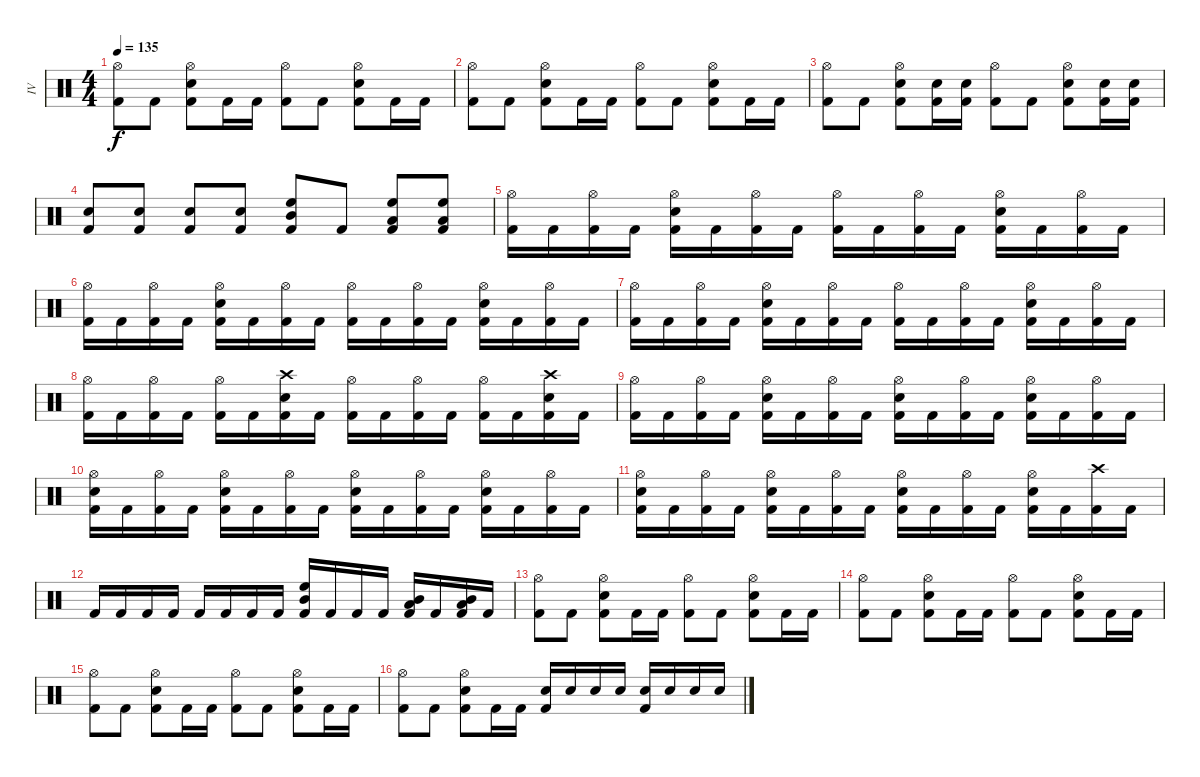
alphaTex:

\track ("IV" "IV") {instrument percussion}
\staff {score}
\articulation defaults
\ts (4 4)
\tempo 135
\clef neutral
\ks c
("Hi-Hat (open)" "Kick (hit) 2").8{dy f} "Kick (hit) 2".8 ("Hi-Hat (open)" "Snare (hit) 2" "Kick (hit) 2").8 "Kick (hit) 2".16 "Kick (hit) 2".16 ("Hi-Hat (open)" "Kick (hit) 2").8 "Kick (hit) 2".8 ("Hi-Hat (open)" "Snare (hit) 2" "Kick (hit) 2").8 "Kick (hit) 2".16 "Kick (hit) 2".16 |
("Hi-Hat (open)" "Kick (hit) 2").8 "Kick (hit) 2".8 ("Hi-Hat (open)" "Snare (hit) 2" "Kick (hit) 2").8 "Kick (hit) 2".16 "Kick (hit) 2".16 ("Hi-Hat (open)" "Kick (hit) 2").8 "Kick (hit) 2".8 ("Hi-Hat (open)" "Snare (hit) 2" "Kick (hit) 2").8 "Kick (hit) 2".16 "Kick (hit) 2".16 |
("Hi-Hat (open)" "Kick (hit) 2").8 "Kick (hit) 2".8 ("Hi-Hat (open)" "Snare (hit) 2" "Kick (hit) 2").8 ("Snare (hit) 2" "Kick (hit) 2").16 ("Snare (hit) 2" "Kick (hit) 2").16 ("Hi-Hat (open)" "Kick (hit) 2").8 "Kick (hit) 2".8 ("Hi-Hat (open)" "Snare (hit) 2" "Kick (hit) 2").8 ("Snare (hit) 2" "Kick (hit) 2").16 ("Snare (hit) 2" "Kick (hit) 2").16 |
("Snare (hit) 2" "Kick (hit) 2").8 ("Snare (hit) 2" "Kick (hit) 2").8 ("Snare (hit) 2" "Kick (hit) 2").8 ("Snare (hit) 2" "Kick (hit) 2").8 ("High Floor Tom (hit)" "Mid Tom (hit)" "Kick (hit) 2").8 "Kick (hit) 2".8 ("High Floor Tom (hit)" "Low Tom (hit)" "Kick (hit) 2").8 ("High Floor Tom (hit)" "Low Tom (hit)" "Kick (hit) 2").8 |
("Hi-Hat (open)" "Kick (hit) 2").16 "Kick (hit) 2".16 ("Hi-Hat (open)" "Kick (hit) 2").16 "Kick (hit) 2".16 ("Hi-Hat (open)" "Snare (hit) 2" "Kick (hit) 2").16 "Kick (hit) 2".16 ("Hi-Hat (open)" "Kick (hit) 2").16 "Kick (hit) 2".16 ("Hi-Hat (open)" "Kick (hit) 2").16 "Kick (hit) 2".16 ("Hi-Hat (open)" "Kick (hit) 2").16 "Kick (hit) 2".16 ("Hi-Hat (open)" "Snare (hit) 2" "Kick (hit) 2").16 "Kick (hit) 2".16 ("Hi-Hat (open)" "Kick (hit) 2").16 "Kick (hit) 2".16 |
("Hi-Hat (open)" "Kick (hit) 2").16 "Kick (hit) 2".16 ("Hi-Hat (open)" "Kick (hit) 2").16 "Kick (hit) 2".16 ("Hi-Hat (open)" "Snare (hit) 2" "Kick (hit) 2").16 "Kick (hit) 2".16 ("Hi-Hat (open)" "Kick (hit) 2").16 "Kick (hit) 2".16 ("Hi-Hat (open)" "Kick (hit) 2").16 "Kick (hit) 2".16 ("Hi-Hat (open)" "Kick (hit) 2").16 "Kick (hit) 2".16 ("Hi-Hat (open)" "Snare (hit) 2" "Kick (hit) 2").16 "Kick (hit) 2".16 ("Hi-Hat (open)" "Kick (hit) 2").16 "Kick (hit) 2".16 |
("Hi-Hat (open)" "Kick (hit) 2").16 "Kick (hit) 2".16 ("Hi-Hat (open)" "Kick (hit) 2").16 "Kick (hit) 2".16 ("Hi-Hat (open)" "Snare (hit) 2" "Kick (hit) 2").16 "Kick (hit) 2".16 ("Hi-Hat (open)" "Kick (hit) 2").16 "Kick (hit) 2".16 ("Hi-Hat (open)" "Kick (hit) 2").16 "Kick (hit) 2".16 ("Hi-Hat (open)" "Kick (hit) 2").16 "Kick (hit) 2".16 ("Hi-Hat (open)" "Snare (hit) 2" "Kick (hit) 2").16 "Kick (hit) 2".16 ("Hi-Hat (open)" "Kick (hit) 2").16 "Kick (hit) 2".16 |
("Hi-Hat (open)" "Kick (hit) 2").16 "Kick (hit) 2".16 ("Hi-Hat (open)" "Kick (hit) 2").16 "Kick (hit) 2".16 ("Hi-Hat (open)" "Kick (hit) 2").16 "Kick (hit) 2".16 ("Crash high (hit)" "Snare (hit) 2" "Kick (hit) 2").16 "Kick (hit) 2".16 ("Hi-Hat (open)" "Kick (hit) 2").16 "Kick (hit) 2".16 ("Hi-Hat (open)" "Kick (hit) 2").16 "Kick (hit) 2".16 ("Hi-Hat (open)" "Kick (hit) 2").16 "Kick (hit) 2".16 ("Crash high (hit)" "Snare (hit) 2" "Kick (hit) 2").16 "Kick (hit) 2".16 |
("Hi-Hat (open)" "Kick (hit) 2").16 "Kick (hit) 2".16 ("Hi-Hat (open)" "Kick (hit) 2").16 "Kick (hit) 2".16 ("Hi-Hat (open)" "Snare (hit) 2" "Kick (hit) 2").16 "Kick (hit) 2".16 ("Hi-Hat (open)" "Kick (hit) 2").16 "Kick (hit) 2".16 ("Hi-Hat (open)" "Snare (hit) 2" "Kick (hit) 2").16 "Kick (hit) 2".16 ("Hi-Hat (open)" "Kick (hit) 2").16 "Kick (hit) 2".16 ("Hi-Hat (open)" "Snare (hit) 2" "Kick (hit) 2").16 "Kick (hit) 2".16 ("Hi-Hat (open)" "Kick (hit) 2").16 "Kick (hit) 2".16 |
("Hi-Hat (open)" "Snare (hit) 2" "Kick (hit) 2").16 "Kick (hit) 2".16 ("Hi-Hat (open)" "Kick (hit) 2").16 "Kick (hit) 2".16 ("Hi-Hat (open)" "Snare (hit) 2" "Kick (hit) 2").16 "Kick (hit) 2".16 ("Hi-Hat (open)" "Kick (hit) 2").16 "Kick (hit) 2".16 ("Hi-Hat (open)" "Snare (hit) 2" "Kick (hit) 2").16 "Kick (hit) 2".16 ("Hi-Hat (open)" "Kick (hit) 2").16 "Kick (hit) 2".16 ("Hi-Hat (open)" "Snare (hit) 2" "Kick (hit) 2").16 "Kick (hit) 2".16 ("Hi-Hat (open)" "Kick (hit) 2").16 "Kick (hit) 2".16 |
("Hi-Hat (open)" "Snare (hit) 2" "Kick (hit) 2").16 "Kick (hit) 2".16 ("Hi-Hat (open)" "Kick (hit) 2").16 "Kick (hit) 2".16 ("Hi-Hat (open)" "Snare (hit) 2" "Kick (hit) 2").16 "Kick (hit) 2".16 ("Hi-Hat (open)" "Kick (hit) 2").16 "Kick (hit) 2".16 ("Hi-Hat (open)" "Snare (hit) 2" "Kick (hit) 2").16 "Kick (hit) 2".16 ("Hi-Hat (open)" "Kick (hit) 2").16 "Kick (hit) 2".16 ("Hi-Hat (open)" "Snare (hit) 2" "Kick (hit) 2").16 "Kick (hit) 2".16 ("Crash high (hit)" "Kick (hit) 2").16 "Kick (hit) 2".16 |
"Kick (hit) 2".16 "Kick (hit) 2".16 "Kick (hit) 2".16 "Kick (hit) 2".16 "Kick (hit) 2".16 "Kick (hit) 2".16 "Kick (hit) 2".16 "Kick (hit) 2".16 ("High Floor Tom (hit)" "Mid Tom (hit)" "Kick (hit) 2").16 "Kick (hit) 2".16 "Kick (hit) 2".16 "Kick (hit) 2".16 ("Mid Tom (hit)" "Low Tom (hit)" "Kick (hit) 2").16 "Kick (hit) 2".16 ("Mid Tom (hit)" "Low Tom (hit)" "Kick (hit) 2").16 "Kick (hit) 2".16 |
("Hi-Hat (open)" "Kick (hit) 2").8 "Kick (hit) 2".8 ("Hi-Hat (open)" "Snare (hit) 2" "Kick (hit) 2").8 "Kick (hit) 2".16 "Kick (hit) 2".16 ("Hi-Hat (open)" "Kick (hit) 2").8 "Kick (hit) 2".8 ("Hi-Hat (open)" "Snare (hit) 2" "Kick (hit) 2").8 "Kick (hit) 2".16 "Kick (hit) 2".16 |
("Hi-Hat (open)" "Kick (hit) 2").8 "Kick (hit) 2".8 ("Hi-Hat (open)" "Snare (hit) 2" "Kick (hit) 2").8 "Kick (hit) 2".16 "Kick (hit) 2".16 ("Hi-Hat (open)" "Kick (hit) 2").8 "Kick (hit) 2".8 ("Hi-Hat (open)" "Snare (hit) 2" "Kick (hit) 2").8 "Kick (hit) 2".16 "Kick (hit) 2".16 |
("Hi-Hat (open)" "Kick (hit) 2").8 "Kick (hit) 2".8 ("Hi-Hat (open)" "Snare (hit) 2" "Kick (hit) 2").8 "Kick (hit) 2".16 "Kick (hit) 2".16 ("Hi-Hat (open)" "Kick (hit) 2").8 "Kick (hit) 2".8 ("Hi-Hat (open)" "Snare (hit) 2" "Kick (hit) 2").8 "Kick (hit) 2".16 "Kick (hit) 2".16 |
("Hi-Hat (open)" "Kick (hit) 2").8 "Kick (hit) 2".8 ("Hi-Hat (open)" "Snare (hit) 2" "Kick (hit) 2").8 "Kick (hit) 2".16 "Kick (hit) 2".16 ("Snare (hit) 2" "Kick (hit) 2").16 "Snare (hit) 2".16 "Snare (hit) 2".16 "Snare (hit) 2".16 ("Snare (hit) 2" "Kick (hit) 2").16 "Snare (hit) 2".16 "Snare (hit) 2".16 "Snare (hit) 2".16
